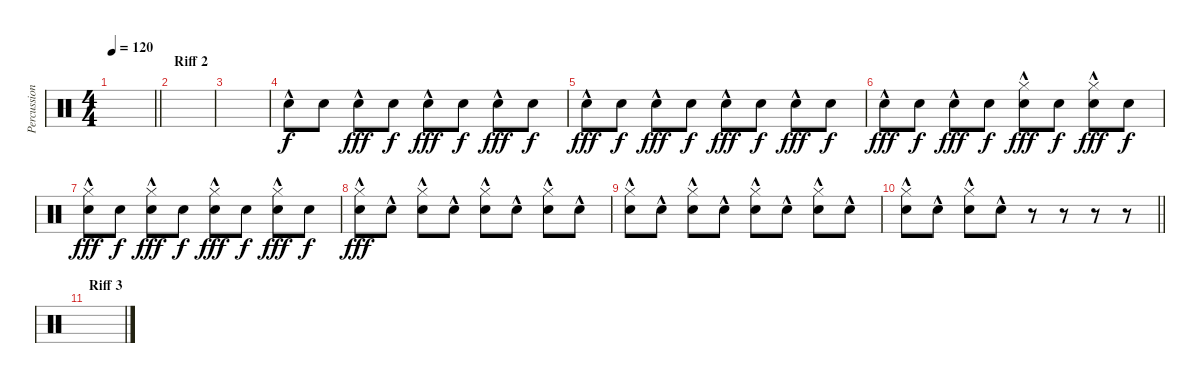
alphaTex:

\track ("Percussion" "Percussion") {instrument percussion}
\staff {score}
\articulation defaults
\ts (4 4)
\tempo 120
\clef neutral
\barLineRight lightlight
\ks c
|
\section ("" "Riff 2")
|
|
"Snare (hit) 2"{hac}.8{volume 1} "Snare (hit) 2".8{dy f} "Snare (hit) 2"{hac}.8{dy fff} "Snare (hit) 2".8{dy f} "Snare (hit) 2"{hac}.8{dy fff} "Snare (hit) 2".8{dy f} "Snare (hit) 2"{hac}.8{dy fff} "Snare (hit) 2".8{dy f} |
"Snare (hit) 2"{hac}.8{dy fff volume 2} "Snare (hit) 2".8{dy f} "Snare (hit) 2"{hac}.8{dy fff} "Snare (hit) 2".8{dy f} "Snare (hit) 2"{hac}.8{dy fff} "Snare (hit) 2".8{dy f} "Snare (hit) 2"{hac}.8{dy fff} "Snare (hit) 2".8{dy f} |
"Snare (hit) 2"{hac}.8{dy fff} "Snare (hit) 2".8{dy f} "Snare (hit) 2"{hac}.8{dy fff} "Snare (hit) 2".8{dy f} ("Hi-Hat (closed)" "Snare (hit) 2"{hac}).8{dy fff} "Snare (hit) 2".8{dy f} ("Hi-Hat (closed)" "Snare (hit) 2"{hac}).8{dy fff} "Snare (hit) 2".8{dy f} |
("Hi-Hat (closed)" "Snare (hit) 2"{hac}).8{dy fff volume 11} "Snare (hit) 2".8{dy f} ("Hi-Hat (closed)" "Snare (hit) 2"{hac}).8{dy fff} "Snare (hit) 2".8{dy f} ("Hi-Hat (closed)" "Snare (hit) 2"{hac}).8{dy fff} "Snare (hit) 2".8{dy f} ("Hi-Hat (closed)" "Snare (hit) 2"{hac}).8{dy fff} "Snare (hit) 2".8{dy f} |
("Hi-Hat (closed)" "Snare (hit) 2"{hac}).8{dy fff} "Snare (hit) 2"{hac}.8 ("Hi-Hat (closed)" "Snare (hit) 2"{hac}).8 "Snare (hit) 2"{hac}.8 ("Hi-Hat (closed)" "Snare (hit) 2"{hac}).8 "Snare (hit) 2"{hac}.8 ("Hi-Hat (closed)" "Snare (hit) 2"{hac}).8 "Snare (hit) 2"{hac}.8 |
("Hi-Hat (closed)" "Snare (hit) 2"{hac}).8 "Snare (hit) 2"{hac}.8 ("Hi-Hat (closed)" "Snare (hit) 2"{hac}).8 "Snare (hit) 2"{hac}.8 ("Hi-Hat (closed)" "Snare (hit) 2"{hac}).8 "Snare (hit) 2"{hac}.8 ("Hi-Hat (closed)" "Snare (hit) 2"{hac}).8 "Snare (hit) 2"{hac}.8 |
\barLineRight lightlight
("Hi-Hat (closed)" "Snare (hit) 2"{hac}).8 "Snare (hit) 2"{hac}.8 ("Hi-Hat (closed)" "Snare (hit) 2"{hac}).8 "Snare (hit) 2"{hac}.8 r.8 r.8 r.8 r.8 |
\section ("" "Riff 3")
